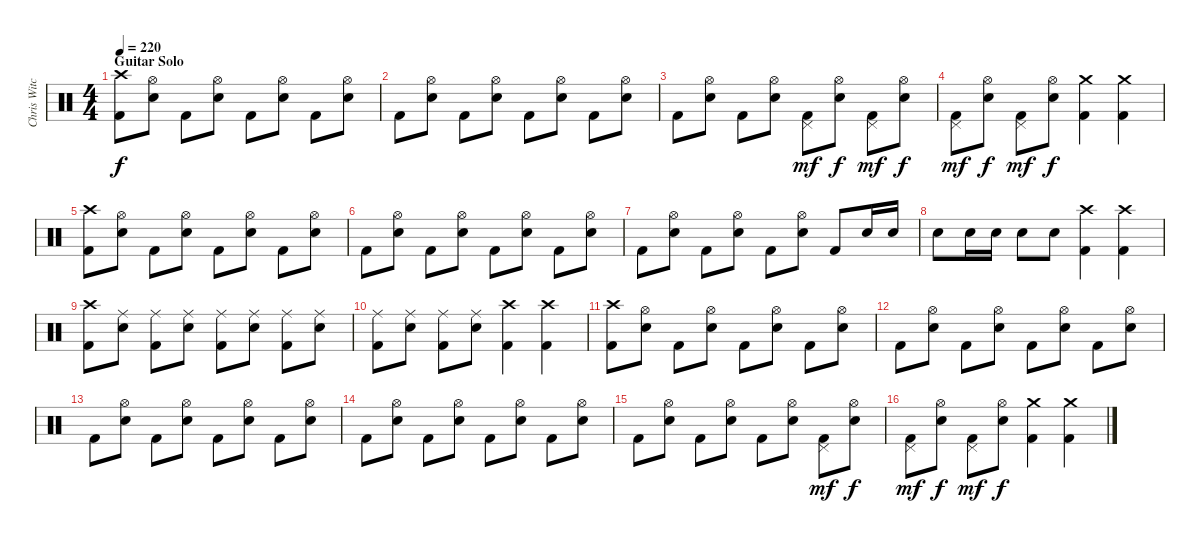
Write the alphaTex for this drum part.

\track ("Chris Witchunter" "Chris Witc") {instrument percussion}
\staff {score}
\articulation defaults
\ts (4 4)
\section ("" "Guitar Solo")
\tempo 220
\clef neutral
\ks c
("Crash high (hit)" "Kick (hit) 2").8{dy f} ("Hi-Hat (open)" "Snare (hit) 2").8 "Kick (hit) 2".8 ("Hi-Hat (open)" "Snare (hit) 2").8 "Kick (hit) 2".8 ("Hi-Hat (open)" "Snare (hit) 2").8 "Kick (hit) 2".8 ("Hi-Hat (open)" "Snare (hit) 2").8 |
"Kick (hit) 2".8 ("Hi-Hat (open)" "Snare (hit) 2").8 "Kick (hit) 2".8 ("Hi-Hat (open)" "Snare (hit) 2").8 "Kick (hit) 2".8 ("Hi-Hat (open)" "Snare (hit) 2").8 "Kick (hit) 2".8 ("Hi-Hat (open)" "Snare (hit) 2").8 |
"Kick (hit) 2".8 ("Hi-Hat (open)" "Snare (hit) 2").8 "Kick (hit) 2".8 ("Hi-Hat (open)" "Snare (hit) 2").8 ("Pedal Hi-Hat (hit)" "Kick (hit) 2").8{dy mf} ("Hi-Hat (open)" "Snare (hit) 2").8{dy f} ("Pedal Hi-Hat (hit)" "Kick (hit) 2").8{dy mf} ("Hi-Hat (open)" "Snare (hit) 2").8{dy f} |
("Pedal Hi-Hat (hit)" "Kick (hit) 2").8{dy mf} ("Hi-Hat (open)" "Snare (hit) 2").8{dy f} ("Pedal Hi-Hat (hit)" "Kick (hit) 2").8{dy mf} ("Hi-Hat (open)" "Snare (hit) 2").8{dy f} ("Crash medium (hit)" "Kick (hit) 2").4 ("Crash medium (hit)" "Kick (hit) 2").4 |
("Crash high (hit)" "Kick (hit) 2").8 ("Hi-Hat (open)" "Snare (hit) 2").8 "Kick (hit) 2".8 ("Hi-Hat (open)" "Snare (hit) 2").8 "Kick (hit) 2".8 ("Hi-Hat (open)" "Snare (hit) 2").8 "Kick (hit) 2".8 ("Hi-Hat (open)" "Snare (hit) 2").8 |
"Kick (hit) 2".8 ("Hi-Hat (open)" "Snare (hit) 2").8 "Kick (hit) 2".8 ("Hi-Hat (open)" "Snare (hit) 2").8 "Kick (hit) 2".8 ("Hi-Hat (open)" "Snare (hit) 2").8 "Kick (hit) 2".8 ("Hi-Hat (open)" "Snare (hit) 2").8 |
"Kick (hit) 2".8 ("Hi-Hat (open)" "Snare (hit) 2").8 "Kick (hit) 2".8 ("Hi-Hat (open)" "Snare (hit) 2").8 "Kick (hit) 2".8 ("Hi-Hat (open)" "Snare (hit) 2").8 "Kick (hit) 2".8 "Snare (hit) 2".16 "Snare (hit) 2".16 |
"Snare (hit) 2".8 "Snare (hit) 2".16 "Snare (hit) 2".16 "Snare (hit) 2".8 "Snare (hit) 2".8 ("Crash high (hit)" "Kick (hit) 2").4 ("Crash high (hit)" "Kick (hit) 2").4 |
("Crash high (hit)" "Kick (hit) 2").8 ("Ride (middle)" "Snare (hit) 2").8 ("Ride (middle)" "Kick (hit) 2").8 ("Ride (middle)" "Snare (hit) 2").8 ("Ride (middle)" "Kick (hit) 2").8 ("Ride (middle)" "Snare (hit) 2").8 ("Ride (middle)" "Kick (hit) 2").8 ("Ride (middle)" "Snare (hit) 2").8 |
("Ride (middle)" "Kick (hit) 2").8 ("Ride (middle)" "Snare (hit) 2").8 ("Ride (middle)" "Kick (hit) 2").8 ("Ride (middle)" "Snare (hit) 2").8 ("Crash high (hit)" "Kick (hit) 2").4 ("Crash high (hit)" "Kick (hit) 2").4 |
("Crash high (hit)" "Kick (hit) 2").8 ("Hi-Hat (open)" "Snare (hit) 2").8 "Kick (hit) 2".8 ("Hi-Hat (open)" "Snare (hit) 2").8 "Kick (hit) 2".8 ("Hi-Hat (open)" "Snare (hit) 2").8 "Kick (hit) 2".8 ("Hi-Hat (open)" "Snare (hit) 2").8 |
"Kick (hit) 2".8 ("Hi-Hat (open)" "Snare (hit) 2").8 "Kick (hit) 2".8 ("Hi-Hat (open)" "Snare (hit) 2").8 "Kick (hit) 2".8 ("Hi-Hat (open)" "Snare (hit) 2").8 "Kick (hit) 2".8 ("Hi-Hat (open)" "Snare (hit) 2").8 |
"Kick (hit) 2".8 ("Hi-Hat (open)" "Snare (hit) 2").8 "Kick (hit) 2".8 ("Hi-Hat (open)" "Snare (hit) 2").8 "Kick (hit) 2".8 ("Hi-Hat (open)" "Snare (hit) 2").8 "Kick (hit) 2".8 ("Hi-Hat (open)" "Snare (hit) 2").8 |
"Kick (hit) 2".8 ("Hi-Hat (open)" "Snare (hit) 2").8 "Kick (hit) 2".8 ("Hi-Hat (open)" "Snare (hit) 2").8 "Kick (hit) 2".8 ("Hi-Hat (open)" "Snare (hit) 2").8 "Kick (hit) 2".8 ("Hi-Hat (open)" "Snare (hit) 2").8 |
"Kick (hit) 2".8 ("Hi-Hat (open)" "Snare (hit) 2").8 "Kick (hit) 2".8 ("Hi-Hat (open)" "Snare (hit) 2").8 "Kick (hit) 2".8 ("Hi-Hat (open)" "Snare (hit) 2").8 ("Pedal Hi-Hat (hit)" "Kick (hit) 2").8{dy mf} ("Hi-Hat (open)" "Snare (hit) 2").8{dy f} |
("Pedal Hi-Hat (hit)" "Kick (hit) 2").8{dy mf} ("Hi-Hat (open)" "Snare (hit) 2").8{dy f} ("Pedal Hi-Hat (hit)" "Kick (hit) 2").8{dy mf} ("Hi-Hat (open)" "Snare (hit) 2").8{dy f} ("Crash medium (hit)" "Kick (hit) 2").4 ("Crash medium (hit)" "Kick (hit) 2").4
